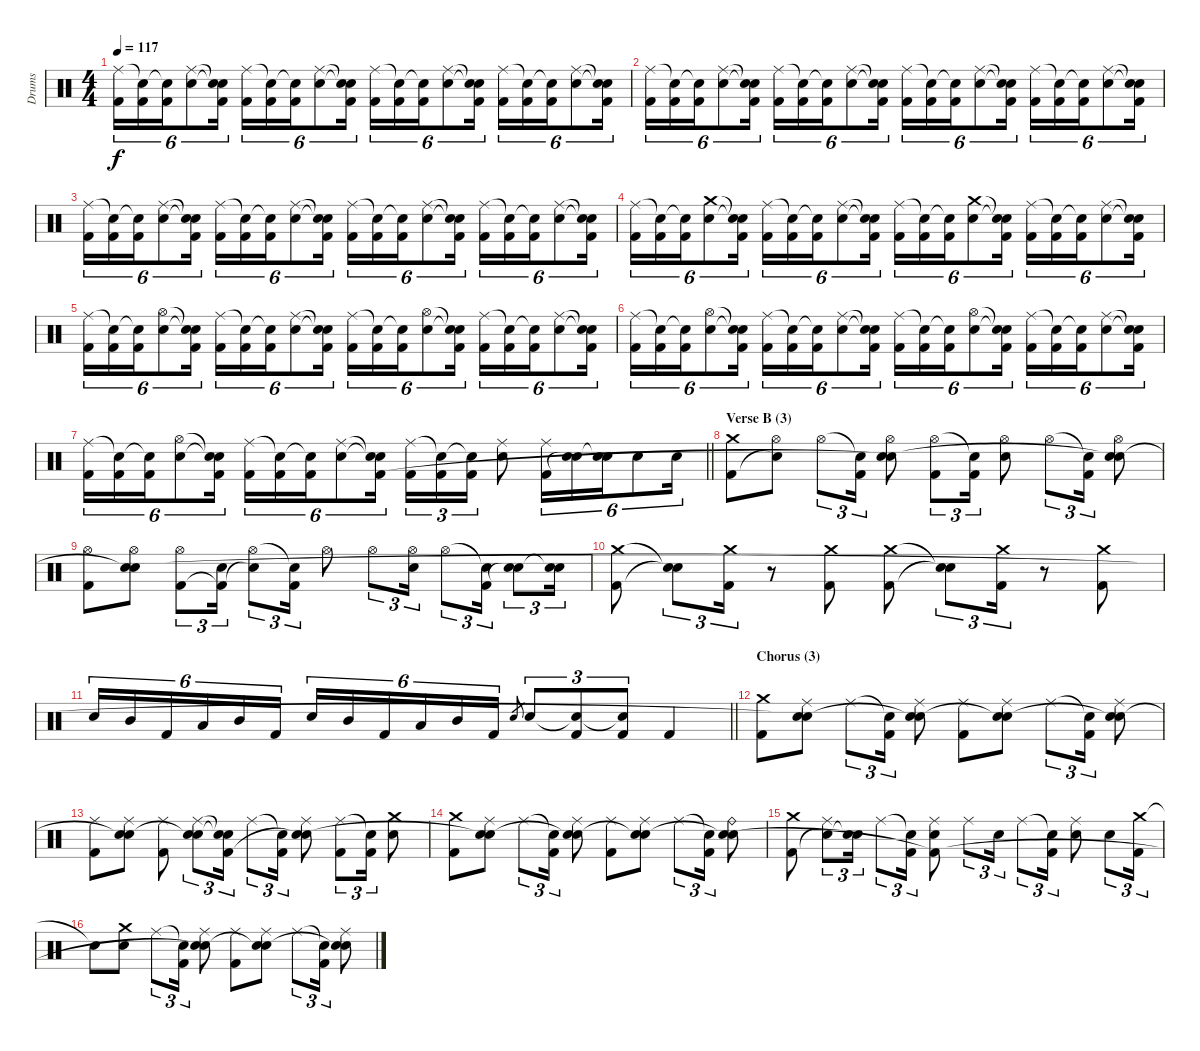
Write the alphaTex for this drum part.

\track ("Drums" "Drums") {instrument percussion}
\staff {score}
\articulation defaults
\ts (4 4)
\tempo 117
\clef neutral
\ks aminor
("Ride (middle)" "Kick (hit) 2").16{tu (6 4) dy f} ("Snare (hit)"{t} "Kick (hit) 2").16{tu (6 4)} ("Snare (hit)"{t} "Kick (hit) 2").16{tu (6 4)} ("Ride (middle)" "Electric Snare (hit)").8{tu (6 4)} ("Snare (hit)"{t} "Snare (hit)"{t} "Kick (hit) 2").16{tu (6 4)} ("Ride (middle)" "Kick (hit) 2").16{tu (6 4)} ("Snare (hit)"{t} "Kick (hit) 2").16{tu (6 4)} ("Snare (hit)"{t} "Kick (hit) 2").16{tu (6 4)} ("Ride (middle)" "Electric Snare (hit)").8{tu (6 4)} ("Snare (hit)"{t} "Snare (hit)"{t} "Kick (hit) 2").16{tu (6 4)} ("Ride (middle)" "Kick (hit) 2").16{tu (6 4)} ("Snare (hit)"{t} "Kick (hit) 2").16{tu (6 4)} ("Snare (hit)"{t} "Kick (hit) 2").16{tu (6 4)} ("Ride (middle)" "Electric Snare (hit)").8{tu (6 4)} ("Snare (hit)"{t} "Snare (hit)"{t} "Kick (hit) 2").16{tu (6 4)} ("Ride (middle)" "Kick (hit) 2").16{tu (6 4)} ("Snare (hit)"{t} "Kick (hit) 2").16{tu (6 4)} ("Snare (hit)"{t} "Kick (hit) 2").16{tu (6 4)} ("Ride (middle)" "Electric Snare (hit)").8{tu (6 4)} ("Snare (hit)"{t} "Snare (hit)"{t} "Kick (hit) 2").16{tu (6 4)} |
("Ride (middle)" "Kick (hit) 2").16{tu (6 4)} ("Snare (hit)"{t} "Kick (hit) 2").16{tu (6 4)} ("Snare (hit)"{t} "Kick (hit) 2").16{tu (6 4)} ("Ride (middle)" "Electric Snare (hit)").8{tu (6 4)} ("Snare (hit)"{t} "Snare (hit)"{t} "Kick (hit) 2").16{tu (6 4)} ("Ride (middle)" "Kick (hit) 2").16{tu (6 4)} ("Snare (hit)"{t} "Kick (hit) 2").16{tu (6 4)} ("Snare (hit)"{t} "Kick (hit) 2").16{tu (6 4)} ("Ride (middle)" "Electric Snare (hit)").8{tu (6 4)} ("Snare (hit)"{t} "Snare (hit)"{t} "Kick (hit) 2").16{tu (6 4)} ("Ride (middle)" "Kick (hit) 2").16{tu (6 4)} ("Snare (hit)"{t} "Kick (hit) 2").16{tu (6 4)} ("Snare (hit)"{t} "Kick (hit) 2").16{tu (6 4)} ("Ride (middle)" "Electric Snare (hit)").8{tu (6 4)} ("Snare (hit)"{t} "Snare (hit)"{t} "Kick (hit) 2").16{tu (6 4)} ("Ride (middle)" "Kick (hit) 2").16{tu (6 4)} ("Snare (hit)"{t} "Kick (hit) 2").16{tu (6 4)} ("Snare (hit)"{t} "Kick (hit) 2").16{tu (6 4)} ("Ride (middle)" "Electric Snare (hit)").8{tu (6 4)} ("Snare (hit)"{t} "Snare (hit)"{t} "Kick (hit) 2").16{tu (6 4)} |
("Ride (middle)" "Kick (hit) 2").16{tu (6 4)} ("Snare (hit)"{t} "Kick (hit) 2").16{tu (6 4)} ("Snare (hit)"{t} "Kick (hit) 2").16{tu (6 4)} ("Ride (middle)" "Electric Snare (hit)").8{tu (6 4)} ("Snare (hit)"{t} "Snare (hit)"{t} "Kick (hit) 2").16{tu (6 4)} ("Ride (middle)" "Kick (hit) 2").16{tu (6 4)} ("Snare (hit)"{t} "Kick (hit) 2").16{tu (6 4)} ("Snare (hit)"{t} "Kick (hit) 2").16{tu (6 4)} ("Ride (middle)" "Electric Snare (hit)").8{tu (6 4)} ("Snare (hit)"{t} "Snare (hit)"{t} "Kick (hit) 2").16{tu (6 4)} ("Ride (middle)" "Kick (hit) 2").16{tu (6 4)} ("Snare (hit)"{t} "Kick (hit) 2").16{tu (6 4)} ("Snare (hit)"{t} "Kick (hit) 2").16{tu (6 4)} ("Ride (middle)" "Electric Snare (hit)").8{tu (6 4)} ("Snare (hit)"{t} "Snare (hit)"{t} "Kick (hit) 2").16{tu (6 4)} ("Ride (middle)" "Kick (hit) 2").16{tu (6 4)} ("Snare (hit)"{t} "Kick (hit) 2").16{tu (6 4)} ("Snare (hit)"{t} "Kick (hit) 2").16{tu (6 4)} ("Ride (middle)" "Electric Snare (hit)").8{tu (6 4)} ("Snare (hit)"{t} "Snare (hit)"{t} "Kick (hit) 2").16{tu (6 4)} |
("Ride (middle)" "Kick (hit) 2").16{tu (6 4)} ("Snare (hit)"{t} "Kick (hit) 2").16{tu (6 4)} ("Snare (hit)"{t} "Kick (hit) 2").16{tu (6 4)} ("Crash medium (hit)" "Electric Snare (hit)").8{tu (6 4)} ("Snare (hit)"{t} "Snare (hit)"{t} "Kick (hit) 2").16{tu (6 4)} ("Ride (middle)" "Kick (hit) 2").16{tu (6 4)} ("Snare (hit)"{t} "Kick (hit) 2").16{tu (6 4)} ("Snare (hit)"{t} "Kick (hit) 2").16{tu (6 4)} ("Ride (middle)" "Electric Snare (hit)").8{tu (6 4)} ("Snare (hit)"{t} "Snare (hit)"{t} "Kick (hit) 2").16{tu (6 4)} ("Ride (middle)" "Kick (hit) 2").16{tu (6 4)} ("Snare (hit)"{t} "Kick (hit) 2").16{tu (6 4)} ("Snare (hit)"{t} "Kick (hit) 2").16{tu (6 4)} ("Crash medium (hit)" "Electric Snare (hit)").8{tu (6 4)} ("Snare (hit)"{t} "Snare (hit)"{t} "Kick (hit) 2").16{tu (6 4)} ("Ride (middle)" "Kick (hit) 2").16{tu (6 4)} ("Snare (hit)"{t} "Kick (hit) 2").16{tu (6 4)} ("Snare (hit)"{t} "Kick (hit) 2").16{tu (6 4)} ("Ride (middle)" "Electric Snare (hit)").8{tu (6 4)} ("Snare (hit)"{t} "Snare (hit)"{t} "Kick (hit) 2").16{tu (6 4)} |
("Ride (middle)" "Kick (hit) 2").16{tu (6 4)} ("Snare (hit)"{t} "Kick (hit) 2").16{tu (6 4)} ("Snare (hit)"{t} "Kick (hit) 2").16{tu (6 4)} ("Hi-Hat (open)" "Electric Snare (hit)").8{tu (6 4)} ("Snare (hit)"{t} "Snare (hit)"{t} "Kick (hit) 2").16{tu (6 4)} ("Ride (middle)" "Kick (hit) 2").16{tu (6 4)} ("Snare (hit)"{t} "Kick (hit) 2").16{tu (6 4)} ("Snare (hit)"{t} "Kick (hit) 2").16{tu (6 4)} ("Ride (middle)" "Electric Snare (hit)").8{tu (6 4)} ("Snare (hit)"{t} "Snare (hit)"{t} "Kick (hit) 2").16{tu (6 4)} ("Ride (middle)" "Kick (hit) 2").16{tu (6 4)} ("Snare (hit)"{t} "Kick (hit) 2").16{tu (6 4)} ("Snare (hit)"{t} "Kick (hit) 2").16{tu (6 4)} ("Hi-Hat (open)" "Electric Snare (hit)").8{tu (6 4)} ("Snare (hit)"{t} "Snare (hit)"{t} "Kick (hit) 2").16{tu (6 4)} ("Ride (middle)" "Kick (hit) 2").16{tu (6 4)} ("Snare (hit)"{t} "Kick (hit) 2").16{tu (6 4)} ("Snare (hit)"{t} "Kick (hit) 2").16{tu (6 4)} ("Ride (middle)" "Electric Snare (hit)").8{tu (6 4)} ("Snare (hit)"{t} "Snare (hit)"{t} "Kick (hit) 2").16{tu (6 4)} |
("Ride (middle)" "Kick (hit) 2").16{tu (6 4)} ("Snare (hit)"{t} "Kick (hit) 2").16{tu (6 4)} ("Snare (hit)"{t} "Kick (hit) 2").16{tu (6 4)} ("Hi-Hat (open)" "Electric Snare (hit)").8{tu (6 4)} ("Snare (hit)"{t} "Snare (hit)"{t} "Kick (hit) 2").16{tu (6 4)} ("Ride (middle)" "Kick (hit) 2").16{tu (6 4)} ("Snare (hit)"{t} "Kick (hit) 2").16{tu (6 4)} ("Snare (hit)"{t} "Kick (hit) 2").16{tu (6 4)} ("Ride (middle)" "Electric Snare (hit)").8{tu (6 4)} ("Snare (hit)"{t} "Snare (hit)"{t} "Kick (hit) 2").16{tu (6 4)} ("Ride (middle)" "Kick (hit) 2").16{tu (6 4)} ("Snare (hit)"{t} "Kick (hit) 2").16{tu (6 4)} ("Snare (hit)"{t} "Kick (hit) 2").16{tu (6 4)} ("Hi-Hat (open)" "Electric Snare (hit)").8{tu (6 4)} ("Snare (hit)"{t} "Snare (hit)"{t} "Kick (hit) 2").16{tu (6 4)} ("Ride (middle)" "Kick (hit) 2").16{tu (6 4)} ("Snare (hit)"{t} "Kick (hit) 2").16{tu (6 4)} ("Snare (hit)"{t} "Kick (hit) 2").16{tu (6 4)} ("Ride (middle)" "Electric Snare (hit)").8{tu (6 4)} ("Snare (hit)"{t} "Snare (hit)"{t} "Kick (hit) 2").16{tu (6 4)} |
\barLineRight lightlight
("Ride (middle)" "Kick (hit) 2").16{tu (6 4)} ("Snare (hit)"{t} "Kick (hit) 2").16{tu (6 4)} ("Snare (hit)"{t} "Kick (hit) 2").16{tu (6 4)} ("Hi-Hat (open)" "Electric Snare (hit)").8{tu (6 4)} ("Snare (hit)"{t} "Snare (hit)"{t} "Kick (hit) 2").16{tu (6 4)} ("Ride (middle)" "Kick (hit) 2").16{tu (6 4)} ("Snare (hit)"{t} "Kick (hit) 2").16{tu (6 4)} ("Snare (hit)"{t} "Kick (hit) 2").16{tu (6 4)} ("Ride (middle)" "Electric Snare (hit)").8{tu (6 4)} ("Snare (hit)"{t} "Snare (hit)"{t} "Kick (hit) 2").16{tu (6 4)} ("Ride (middle)" "Kick (hit) 2").16{tu (3 2)} ("Snare (hit)"{t} "Kick (hit) 2").16{tu (3 2)} ("Snare (hit)"{t} "Kick (hit) 2").16{tu (3 2)} ("Ride (middle)" "Electric Snare (hit)").8 ("Ride (middle)" "Kick (hit) 2").16{tu (6 4)} ("Electric Snare (hit)" "Snare (hit)"{t}).16{tu (6 4)} ("Electric Snare (hit)" "Snare (hit)"{t}).16{tu (6 4)} "Electric Snare (hit)".8{tu (6 4)} "Electric Snare (hit)".16{tu (6 4)} |
\section ("" "Verse B (3)")
("Crash medium (hit)" "Kick (hit) 2").8 ("Hi-Hat (open)" "Snare (hit)"{t}).8 "Hi-Hat (open)".8{tu (3 2)} ("Snare (hit)"{t} "Kick (hit) 2").16{tu (3 2)} ("Hi-Hat (open)" "Electric Snare (hit)" "Snare (hit)"{t}).8 ("Hi-Hat (open)" "Kick (hit) 2").8{tu (3 2)} ("Snare (hit)"{t} "Kick (hit) 2").16{tu (3 2)} ("Hi-Hat (open)" "Electric Snare (hit)").8 "Hi-Hat (open)".8{tu (3 2)} ("Snare (hit)"{t} "Kick (hit) 2").16{tu (3 2)} ("Hi-Hat (open)" "Electric Snare (hit)" "Snare (hit)"{t}).8 |
("Hi-Hat (open)" "Kick (hit) 2").8 ("Hi-Hat (open)" "Electric Snare (hit)" "Snare (hit)"{t}).8 ("Hi-Hat (open)" "Kick (hit) 2").8{tu (3 2)} ("Electric Snare (hit)" "Kick (hit) 2"{t}).16{tu (3 2)} ("Hi-Hat (open)" "Snare (hit)"{t}).8{tu (3 2)} ("Snare (hit)"{t} "Kick (hit) 2").16{tu (3 2)} "Hi-Hat (open)".8 "Hi-Hat (open)".8{tu (3 2)} ("Hi-Hat (open)" "Electric Snare (hit)").16{tu (3 2)} "Hi-Hat (open)".8{tu (3 2)} ("Snare (hit)"{t} "Kick (hit) 2").16{tu (3 2)} ("Electric Snare (hit)" "Snare (hit)"{t}).8{tu (3 2)} ("Electric Snare (hit)" "Snare (hit)"{t}).16{tu (3 2)} |
("Crash medium (hit)" "Kick (hit) 2").8 ("Snare (hit)"{t} "Snare (hit)"{t}).8{tu (3 2)} ("Crash medium (hit)" "Kick (hit) 2").16{tu (3 2)} r.8 ("Crash medium (hit)" "Kick (hit) 2").8 ("Crash medium (hit)" "Kick (hit) 2").8 ("Snare (hit)"{t} "Snare (hit)"{t}).8{tu (3 2)} ("Crash medium (hit)" "Kick (hit) 2").16{tu (3 2)} r.8 ("Crash medium (hit)" "Kick (hit) 2").8 |
\barLineRight lightlight "Electric Snare (hit)".16{tu (6 4)} "Mid Tom (hit)".16{tu (6 4)} "Kick (hit) 2".16{tu (6 4)} "Low Floor Tom (hit)".16{tu (6 4)} "Mid Tom (hit)".16{tu (6 4)} "Kick (hit) 2".16{tu (6 4)} "Electric Snare (hit)".16{tu (6 4)} "Mid Tom (hit)".16{tu (6 4)} "Kick (hit) 2".16{tu (6 4)} "Low Floor Tom (hit)".16{tu (6 4)} "Mid Tom (hit)".16{tu (6 4)} "Kick (hit) 2".16{tu (6 4)} "Electric Snare (hit)".8{gr} "Electric Snare (hit)".8{tu (3 2)}
("Snare (hit)"{t} "Kick (hit) 2").8{tu (3 2)} ("Snare (hit)"{t} "Kick (hit) 2").8{tu (3 2)} "Kick (hit) 2".4 |
\section ("" "Chorus (3)")
("Crash medium (hit)" "Kick (hit) 2").8 ("Ride (middle)" "Electric Snare (hit)" "Snare (hit)"{t}).8 "Ride (middle)".8{tu (3 2)} ("Snare (hit)"{t} "Kick (hit) 2").16{tu (3 2)} ("Ride (middle)" "Electric Snare (hit)" "Snare (hit)"{t}).8 ("Ride (middle)" "Kick (hit) 2").8 ("Ride (middle)" "Electric Snare (hit)" "Snare (hit)"{t}).8 "Ride (middle)".8{tu (3 2)} ("Snare (hit)"{t} "Kick (hit) 2").16{tu (3 2)} ("Ride (middle)" "Electric Snare (hit)" "Snare (hit)"{t}).8 |
("Ride (middle)" "Kick (hit) 2").8 ("Ride (middle)" "Electric Snare (hit)" "Snare (hit)"{t}).8 ("Ride (middle)" "Kick (hit) 2").8 ("Ride (middle)" "Electric Snare (hit)" "Snare (hit)"{t}).8{tu (3 2)} ("Snare (hit)"{t} "Snare (hit)"{t} "Kick (hit) 2").16{tu (3 2)} "Ride (middle)".8{tu (3 2)} ("Snare (hit)"{t} "Kick (hit) 2").16{tu (3 2)} ("Ride (middle)" "Electric Snare (hit)" "Snare (hit)"{t}).8 ("Ride (middle)" "Kick (hit) 2").8{tu (3 2)} ("Snare (hit)"{t} "Kick (hit) 2").16{tu (3 2)} ("Crash medium (hit)" "Electric Snare (hit)").8 |
("Crash medium (hit)" "Kick (hit) 2").8 ("Ride (middle)" "Electric Snare (hit)" "Snare (hit)"{t}).8 "Ride (middle)".8{tu (3 2)} ("Snare (hit)"{t} "Kick (hit) 2").16{tu (3 2)} ("Ride (middle)" "Electric Snare (hit)" "Snare (hit)"{t}).8 ("Ride (middle)" "Kick (hit) 2").8 ("Ride (middle)" "Electric Snare (hit)" "Snare (hit)"{t}).8 "Ride (middle)".8{tu (3 2)} ("Snare (hit)"{t} "Kick (hit) 2").16{tu (3 2)} ("Ride (bell)" "Electric Snare (hit)" "Snare (hit)"{t}).8 |
("Crash medium (hit)" "Kick (hit) 2").8 ("Ride (middle)" "Snare (hit)"{t}).8{tu (3 2)} ("Electric Snare (hit)" "Snare (hit)"{t}).16{tu (3 2)} "Ride (middle)".8{tu (3 2)} ("Snare (hit)"{t} "Kick (hit) 2").16{tu (3 2)} ("Ride (middle)" "Electric Snare (hit)" "Kick (hit) 2"{t}).8 "Ride (middle)".8{tu (3 2)} "Electric Snare (hit)".16{tu (3 2)} "Ride (middle)".8{tu (3 2)} ("Snare (hit)"{t} "Kick (hit) 2").16{tu (3 2)} ("Ride (middle)" "Electric Snare (hit)").8 "Electric Snare (hit)".8{tu (3 2)} ("Crash medium (hit)" "Kick (hit) 2").16{tu (3 2)} |
"Snare (hit)"{t}.8 ("Crash medium (hit)" "Electric Snare (hit)").8 "Ride (middle)".8{tu (3 2)} ("Snare (hit)"{t} "Kick (hit) 2").16{tu (3 2)} ("Ride (middle)" "Electric Snare (hit)" "Snare (hit)"{t}).8 ("Ride (middle)" "Kick (hit) 2").8 ("Ride (middle)" "Electric Snare (hit)" "Snare (hit)"{t}).8 "Ride (middle)".8{tu (3 2)} ("Snare (hit)"{t} "Kick (hit) 2").16{tu (3 2)} ("Ride (middle)" "Electric Snare (hit)" "Snare (hit)"{t}).8
